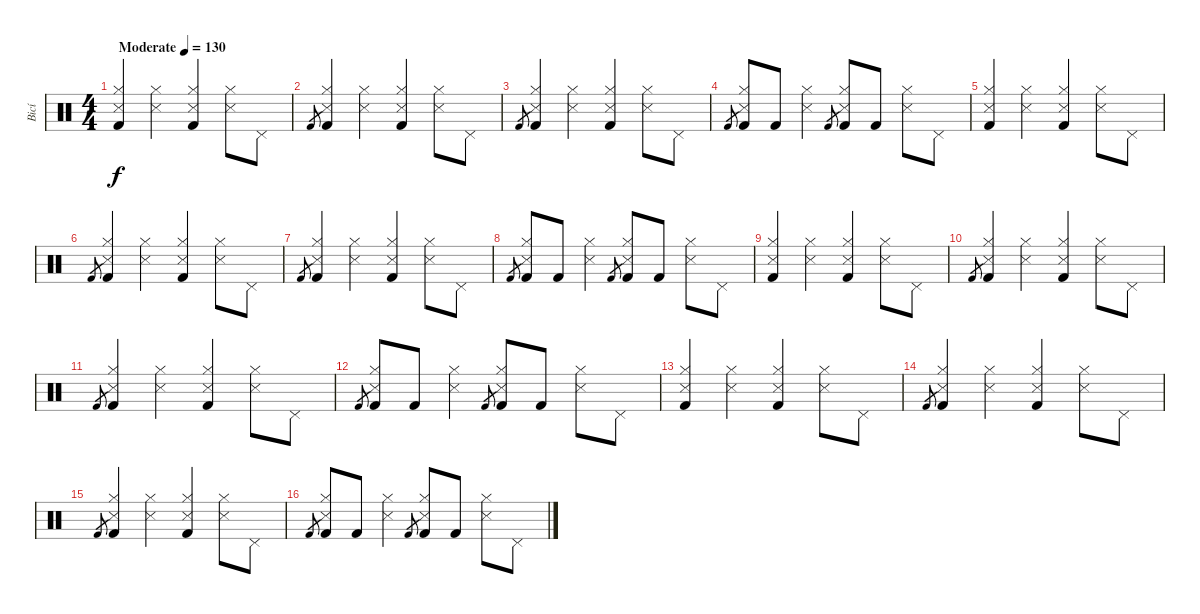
\track ("Bicí" "Bicí") {instrument percussion}
\staff {score}
\articulation defaults
\ts (4 4)
\tempo (130 "Moderate")
\clef neutral
\ks c
("Snare (side stick) 3" "Hi-Hat (closed)" "Kick (hit) 2").4{dy f} ("Snare (side stick) 3" "Hi-Hat (closed)").4 ("Snare (side stick) 3" "Hi-Hat (closed)" "Kick (hit) 2").4 ("Snare (side stick) 3" "Hi-Hat (closed)").8 "Pedal Hi-Hat (hit)".8 |
"Kick (hit) 2".8{gr} ("Snare (side stick) 3" "Hi-Hat (closed)" "Kick (hit) 2").4 ("Snare (side stick) 3" "Hi-Hat (closed)").4 ("Snare (side stick) 3" "Hi-Hat (closed)" "Kick (hit) 2").4 ("Snare (side stick) 3" "Hi-Hat (closed)").8 "Pedal Hi-Hat (hit)".8 |
"Kick (hit) 2".8{gr} ("Snare (side stick) 3" "Hi-Hat (closed)" "Kick (hit) 2").4 ("Snare (side stick) 3" "Hi-Hat (closed)").4 ("Snare (side stick) 3" "Hi-Hat (closed)" "Kick (hit) 2").4 ("Snare (side stick) 3" "Hi-Hat (closed)").8 "Pedal Hi-Hat (hit)".8 |
"Kick (hit) 2".8{gr} ("Snare (side stick) 3" "Hi-Hat (closed)" "Kick (hit) 2").8 "Kick (hit) 2".8 ("Snare (side stick) 3" "Hi-Hat (closed)").4 "Kick (hit) 2".8{gr} ("Snare (side stick) 3" "Hi-Hat (closed)" "Kick (hit) 2").8 "Kick (hit) 2".8 ("Snare (side stick) 3" "Hi-Hat (closed)").8 "Pedal Hi-Hat (hit)".8 |
("Snare (side stick) 3" "Hi-Hat (closed)" "Kick (hit) 2").4 ("Snare (side stick) 3" "Hi-Hat (closed)").4 ("Snare (side stick) 3" "Hi-Hat (closed)" "Kick (hit) 2").4 ("Snare (side stick) 3" "Hi-Hat (closed)").8 "Pedal Hi-Hat (hit)".8 |
"Kick (hit) 2".8{gr} ("Snare (side stick) 3" "Hi-Hat (closed)" "Kick (hit) 2").4 ("Snare (side stick) 3" "Hi-Hat (closed)").4 ("Snare (side stick) 3" "Hi-Hat (closed)" "Kick (hit) 2").4 ("Snare (side stick) 3" "Hi-Hat (closed)").8 "Pedal Hi-Hat (hit)".8 |
"Kick (hit) 2".8{gr} ("Snare (side stick) 3" "Hi-Hat (closed)" "Kick (hit) 2").4 ("Snare (side stick) 3" "Hi-Hat (closed)").4 ("Snare (side stick) 3" "Hi-Hat (closed)" "Kick (hit) 2").4 ("Snare (side stick) 3" "Hi-Hat (closed)").8 "Pedal Hi-Hat (hit)".8 |
"Kick (hit) 2".8{gr} ("Snare (side stick) 3" "Hi-Hat (closed)" "Kick (hit) 2").8 "Kick (hit) 2".8 ("Snare (side stick) 3" "Hi-Hat (closed)").4 "Kick (hit) 2".8{gr} ("Snare (side stick) 3" "Hi-Hat (closed)" "Kick (hit) 2").8 "Kick (hit) 2".8 ("Snare (side stick) 3" "Hi-Hat (closed)").8 "Pedal Hi-Hat (hit)".8 |
("Snare (side stick) 3" "Hi-Hat (closed)" "Kick (hit) 2").4 ("Snare (side stick) 3" "Hi-Hat (closed)").4 ("Snare (side stick) 3" "Hi-Hat (closed)" "Kick (hit) 2").4 ("Snare (side stick) 3" "Hi-Hat (closed)").8 "Pedal Hi-Hat (hit)".8 |
"Kick (hit) 2".8{gr} ("Snare (side stick) 3" "Hi-Hat (closed)" "Kick (hit) 2").4 ("Snare (side stick) 3" "Hi-Hat (closed)").4 ("Snare (side stick) 3" "Hi-Hat (closed)" "Kick (hit) 2").4 ("Snare (side stick) 3" "Hi-Hat (closed)").8 "Pedal Hi-Hat (hit)".8 |
"Kick (hit) 2".8{gr} ("Snare (side stick) 3" "Hi-Hat (closed)" "Kick (hit) 2").4 ("Snare (side stick) 3" "Hi-Hat (closed)").4 ("Snare (side stick) 3" "Hi-Hat (closed)" "Kick (hit) 2").4 ("Snare (side stick) 3" "Hi-Hat (closed)").8 "Pedal Hi-Hat (hit)".8 |
"Kick (hit) 2".8{gr} ("Snare (side stick) 3" "Hi-Hat (closed)" "Kick (hit) 2").8 "Kick (hit) 2".8 ("Snare (side stick) 3" "Hi-Hat (closed)").4 "Kick (hit) 2".8{gr} ("Snare (side stick) 3" "Hi-Hat (closed)" "Kick (hit) 2").8 "Kick (hit) 2".8 ("Snare (side stick) 3" "Hi-Hat (closed)").8 "Pedal Hi-Hat (hit)".8 |
("Snare (side stick) 3" "Hi-Hat (closed)" "Kick (hit) 2").4 ("Snare (side stick) 3" "Hi-Hat (closed)").4 ("Snare (side stick) 3" "Hi-Hat (closed)" "Kick (hit) 2").4 ("Snare (side stick) 3" "Hi-Hat (closed)").8 "Pedal Hi-Hat (hit)".8 |
"Kick (hit) 2".8{gr} ("Snare (side stick) 3" "Hi-Hat (closed)" "Kick (hit) 2").4 ("Snare (side stick) 3" "Hi-Hat (closed)").4 ("Snare (side stick) 3" "Hi-Hat (closed)" "Kick (hit) 2").4 ("Snare (side stick) 3" "Hi-Hat (closed)").8 "Pedal Hi-Hat (hit)".8 |
"Kick (hit) 2".8{gr} ("Snare (side stick) 3" "Hi-Hat (closed)" "Kick (hit) 2").4 ("Snare (side stick) 3" "Hi-Hat (closed)").4 ("Snare (side stick) 3" "Hi-Hat (closed)" "Kick (hit) 2").4 ("Snare (side stick) 3" "Hi-Hat (closed)").8 "Pedal Hi-Hat (hit)".8 |
"Kick (hit) 2".8{gr} ("Snare (side stick) 3" "Hi-Hat (closed)" "Kick (hit) 2").8 "Kick (hit) 2".8 ("Snare (side stick) 3" "Hi-Hat (closed)").4 "Kick (hit) 2".8{gr} ("Snare (side stick) 3" "Hi-Hat (closed)" "Kick (hit) 2").8 "Kick (hit) 2".8 ("Snare (side stick) 3" "Hi-Hat (closed)").8 "Pedal Hi-Hat (hit)".8
